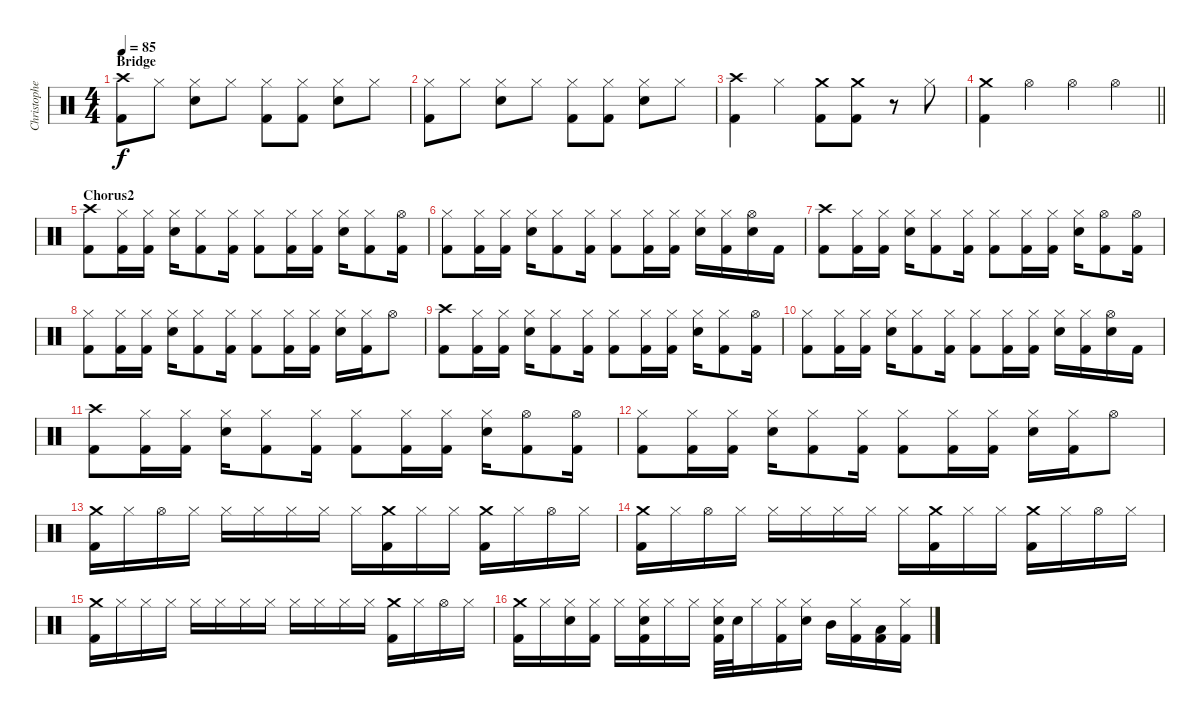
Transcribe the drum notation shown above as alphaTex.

\track ("Christopher" "Christophe") {instrument percussion}
\staff {score}
\articulation defaults
\ts (4 4)
\section ("" "Bridge")
\tempo 85
\clef neutral
\ks c
("Crash high (hit)" "Kick (hit) 2").8{dy f} "Hi-Hat (closed)".8 ("Hi-Hat (closed)" "Snare (hit) 2").8 "Hi-Hat (closed)".8 ("Hi-Hat (closed)" "Kick (hit) 2").8 ("Hi-Hat (closed)" "Kick (hit) 2").8 ("Hi-Hat (closed)" "Snare (hit) 2").8 "Hi-Hat (closed)".8 |
("Hi-Hat (closed)" "Kick (hit) 2").8 "Hi-Hat (closed)".8 ("Hi-Hat (closed)" "Snare (hit) 2").8 "Hi-Hat (closed)".8 ("Hi-Hat (closed)" "Kick (hit) 2").8 ("Hi-Hat (closed)" "Kick (hit) 2").8 ("Hi-Hat (closed)" "Snare (hit) 2").8 "Hi-Hat (closed)".8 |
("Crash high (hit)" "Kick (hit) 2").4 "Hi-Hat (closed)".4 ("Crash medium (hit)" "Kick (hit) 2").8 ("Crash medium (hit)" "Kick (hit) 2").8 r.8 "Hi-Hat (closed)".8 |
\barLineRight lightlight
("Crash medium (hit)" "Kick (hit) 2").4 "Hi-Hat (open)".4 "Hi-Hat (open)".4 "Hi-Hat (open)".4 |
\section ("" "Chorus2")
("Crash high (hit)" "Kick (hit) 2").8 ("Hi-Hat (closed)" "Kick (hit) 2").16 ("Hi-Hat (closed)" "Kick (hit) 2").16 ("Hi-Hat (closed)" "Snare (hit) 2").16 ("Hi-Hat (closed)" "Kick (hit) 2").8 ("Hi-Hat (closed)" "Kick (hit) 2").16 ("Hi-Hat (closed)" "Kick (hit) 2").8 ("Hi-Hat (closed)" "Kick (hit) 2").16 ("Hi-Hat (closed)" "Kick (hit) 2").16 ("Hi-Hat (closed)" "Snare (hit) 2").16 ("Hi-Hat (closed)" "Kick (hit) 2").8 ("Hi-Hat (open)" "Kick (hit) 2").16 |
("Hi-Hat (closed)" "Kick (hit) 2").8 ("Hi-Hat (closed)" "Kick (hit) 2").16 ("Hi-Hat (closed)" "Kick (hit) 2").16 ("Hi-Hat (closed)" "Snare (hit) 2").16 ("Hi-Hat (closed)" "Kick (hit) 2").8 ("Hi-Hat (closed)" "Kick (hit) 2").16 ("Hi-Hat (closed)" "Kick (hit) 2").8 ("Hi-Hat (closed)" "Kick (hit) 2").16 ("Hi-Hat (closed)" "Kick (hit) 2").16 ("Hi-Hat (closed)" "Snare (hit) 2").16 ("Hi-Hat (closed)" "Kick (hit) 2").16 ("Hi-Hat (open)" "Snare (hit) 2").16 "Kick (hit) 2".16 |
("Crash high (hit)" "Kick (hit) 2").8 ("Hi-Hat (closed)" "Kick (hit) 2").16 ("Hi-Hat (closed)" "Kick (hit) 2").16 ("Hi-Hat (closed)" "Snare (hit) 2").16 ("Hi-Hat (closed)" "Kick (hit) 2").8 ("Hi-Hat (closed)" "Kick (hit) 2").16 ("Hi-Hat (closed)" "Kick (hit) 2").8 ("Hi-Hat (closed)" "Kick (hit) 2").16 ("Hi-Hat (closed)" "Kick (hit) 2").16 ("Hi-Hat (closed)" "Snare (hit) 2").16 ("Hi-Hat (open)" "Kick (hit) 2").8 ("Hi-Hat (open)" "Kick (hit) 2").16 |
("Hi-Hat (closed)" "Kick (hit) 2").8 ("Hi-Hat (closed)" "Kick (hit) 2").16 ("Hi-Hat (closed)" "Kick (hit) 2").16 ("Hi-Hat (closed)" "Snare (hit) 2").16 ("Hi-Hat (closed)" "Kick (hit) 2").8 ("Hi-Hat (closed)" "Kick (hit) 2").16 ("Hi-Hat (closed)" "Kick (hit) 2").8 ("Hi-Hat (closed)" "Kick (hit) 2").16 ("Hi-Hat (closed)" "Kick (hit) 2").16 ("Hi-Hat (closed)" "Snare (hit) 2").16 ("Hi-Hat (closed)" "Kick (hit) 2").16 "Hi-Hat (open)".8 |
("Crash high (hit)" "Kick (hit) 2").8 ("Hi-Hat (closed)" "Kick (hit) 2").16 ("Hi-Hat (closed)" "Kick (hit) 2").16 ("Hi-Hat (closed)" "Snare (hit) 2").16 ("Hi-Hat (closed)" "Kick (hit) 2").8 ("Hi-Hat (closed)" "Kick (hit) 2").16 ("Hi-Hat (closed)" "Kick (hit) 2").8 ("Hi-Hat (closed)" "Kick (hit) 2").16 ("Hi-Hat (closed)" "Kick (hit) 2").16 ("Hi-Hat (closed)" "Snare (hit) 2").16 ("Hi-Hat (closed)" "Kick (hit) 2").8 ("Hi-Hat (open)" "Kick (hit) 2").16 |
("Hi-Hat (closed)" "Kick (hit) 2").8 ("Hi-Hat (closed)" "Kick (hit) 2").16 ("Hi-Hat (closed)" "Kick (hit) 2").16 ("Hi-Hat (closed)" "Snare (hit) 2").16 ("Hi-Hat (closed)" "Kick (hit) 2").8 ("Hi-Hat (closed)" "Kick (hit) 2").16 ("Hi-Hat (closed)" "Kick (hit) 2").8 ("Hi-Hat (closed)" "Kick (hit) 2").16 ("Hi-Hat (closed)" "Kick (hit) 2").16 ("Hi-Hat (closed)" "Snare (hit) 2").16 ("Hi-Hat (closed)" "Kick (hit) 2").16 ("Hi-Hat (open)" "Snare (hit) 2").16 "Kick (hit) 2".16 |
("Crash high (hit)" "Kick (hit) 2").8 ("Hi-Hat (closed)" "Kick (hit) 2").16 ("Hi-Hat (closed)" "Kick (hit) 2").16 ("Hi-Hat (closed)" "Snare (hit) 2").16 ("Hi-Hat (closed)" "Kick (hit) 2").8 ("Hi-Hat (closed)" "Kick (hit) 2").16 ("Hi-Hat (closed)" "Kick (hit) 2").8 ("Hi-Hat (closed)" "Kick (hit) 2").16 ("Hi-Hat (closed)" "Kick (hit) 2").16 ("Hi-Hat (closed)" "Snare (hit) 2").16 ("Hi-Hat (open)" "Kick (hit) 2").8 ("Hi-Hat (open)" "Kick (hit) 2").16 |
("Hi-Hat (closed)" "Kick (hit) 2").8 ("Hi-Hat (closed)" "Kick (hit) 2").16 ("Hi-Hat (closed)" "Kick (hit) 2").16 ("Hi-Hat (closed)" "Snare (hit) 2").16 ("Hi-Hat (closed)" "Kick (hit) 2").8 ("Hi-Hat (closed)" "Kick (hit) 2").16 ("Hi-Hat (closed)" "Kick (hit) 2").8 ("Hi-Hat (closed)" "Kick (hit) 2").16 ("Hi-Hat (closed)" "Kick (hit) 2").16 ("Hi-Hat (closed)" "Snare (hit) 2").16 ("Hi-Hat (closed)" "Kick (hit) 2").16 "Hi-Hat (open)".8 |
("Crash medium (hit)" "Kick (hit) 2").16 "Hi-Hat (closed)".16 "Hi-Hat (open)".16 "Hi-Hat (closed)".16 "Hi-Hat (closed)".16 "Hi-Hat (closed)".16 "Hi-Hat (closed)".16 "Hi-Hat (closed)".16 "Hi-Hat (closed)".16 ("Crash medium (hit)" "Kick (hit) 2").16 "Hi-Hat (closed)".16 "Hi-Hat (closed)".16 ("Crash medium (hit)" "Kick (hit) 2").16 "Hi-Hat (closed)".16 "Hi-Hat (open)".16 "Hi-Hat (closed)".16 |
("Crash medium (hit)" "Kick (hit) 2").16 "Hi-Hat (closed)".16 "Hi-Hat (open)".16 "Hi-Hat (closed)".16 "Hi-Hat (closed)".16 "Hi-Hat (closed)".16 "Hi-Hat (closed)".16 "Hi-Hat (closed)".16 "Hi-Hat (closed)".16 ("Crash medium (hit)" "Kick (hit) 2").16 "Hi-Hat (closed)".16 "Hi-Hat (closed)".16 ("Crash medium (hit)" "Kick (hit) 2").16 "Hi-Hat (closed)".16 "Hi-Hat (open)".16 "Hi-Hat (closed)".16 |
("Crash medium (hit)" "Kick (hit) 2").16 "Hi-Hat (closed)".16 "Hi-Hat (closed)".16 "Hi-Hat (closed)".16 "Hi-Hat (closed)".16 "Hi-Hat (closed)".16 "Hi-Hat (closed)".16 "Hi-Hat (closed)".16 "Hi-Hat (closed)".16 "Hi-Hat (closed)".16 "Hi-Hat (closed)".16 "Hi-Hat (closed)".16 ("Crash medium (hit)" "Kick (hit) 2").16 "Hi-Hat (closed)".16 "Hi-Hat (open)".16 "Hi-Hat (closed)".16 |
("Crash medium (hit)" "Kick (hit) 2").16 "Hi-Hat (closed)".16 ("Hi-Hat (closed)" "Snare (hit) 2").16 ("Hi-Hat (closed)" "Kick (hit) 2").16 "Hi-Hat (closed)".16 ("Hi-Hat (closed)" "Snare (hit) 2" "Kick (hit) 2").16 "Hi-Hat (closed)".16 "Hi-Hat (closed)".16 ("Hi-Hat (closed)" "Snare (hit) 2" "Kick (hit) 2").32 "Snare (hit) 2".32 "Hi-Hat (closed)".16 ("Hi-Hat (closed)" "Kick (hit) 2").16 ("Hi-Hat (closed)" "Snare (hit) 2").16 "Mid Tom (hit)".16 ("Hi-Hat (closed)" "Kick (hit) 2").16 ("Low Tom (hit)" "Kick (hit) 2").16 ("Hi-Hat (closed)" "Kick (hit) 2").16
